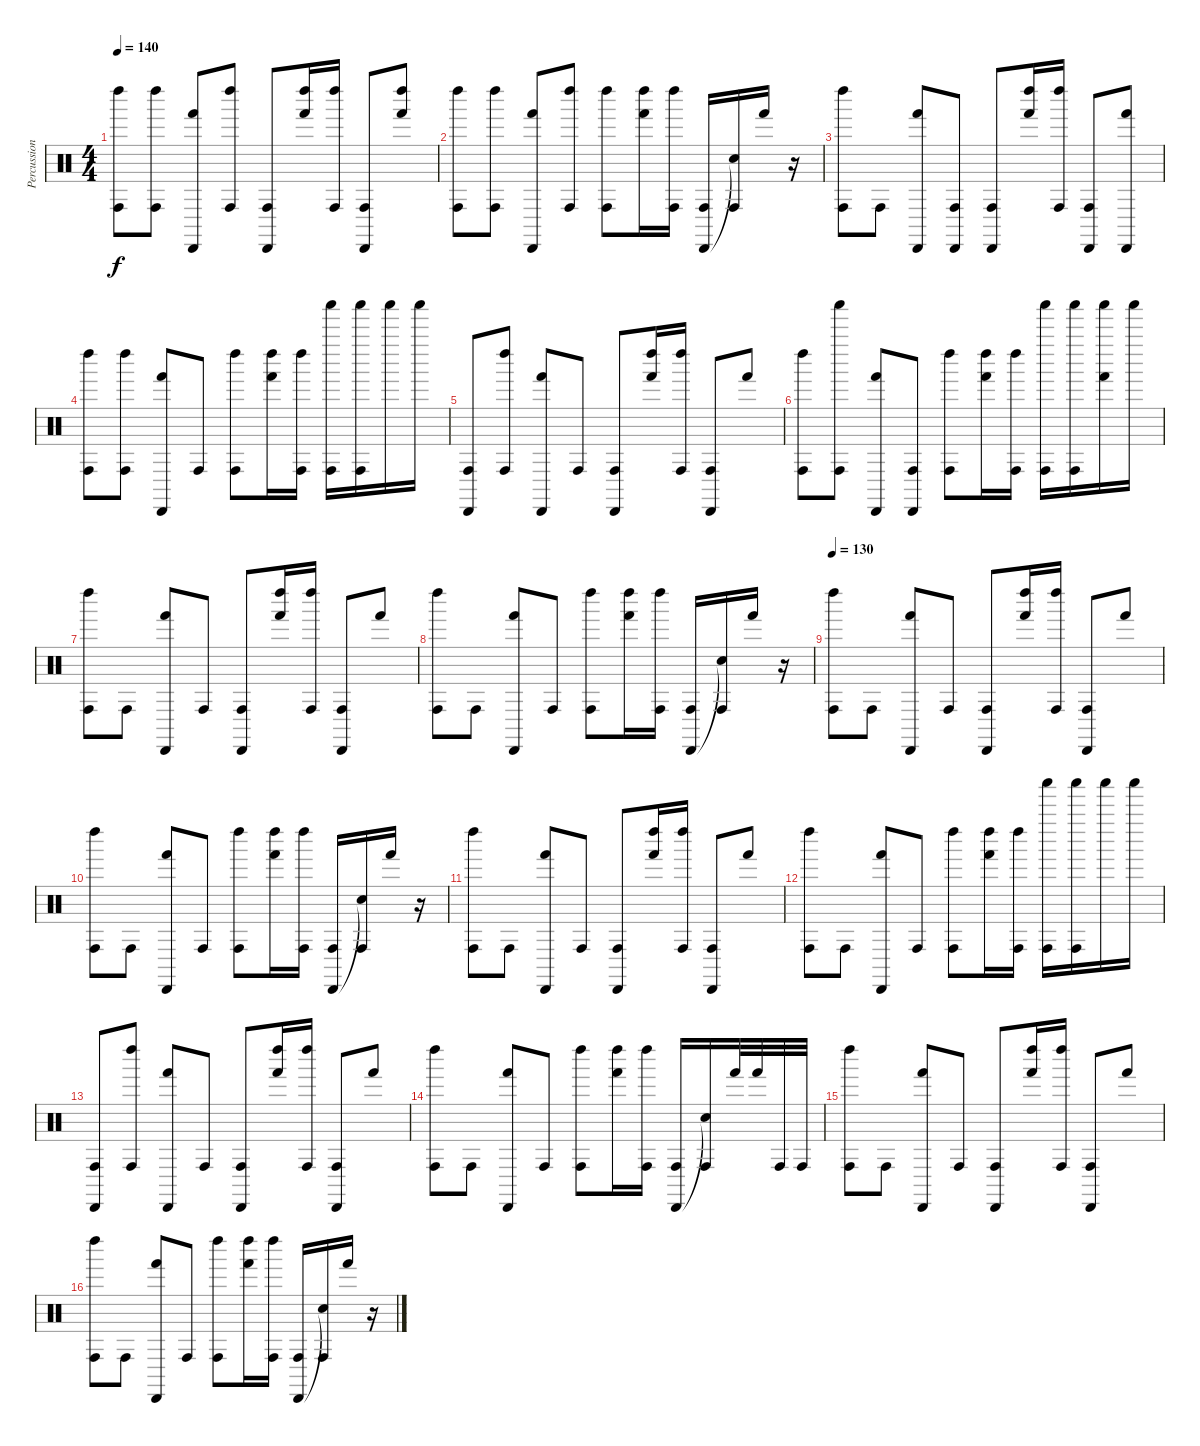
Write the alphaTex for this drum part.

\track ("Percussions" "Percussion") {instrument percussion}
\staff {score}
\articulation defaults
\ts (4 4)
\tempo 140
\clef neutral
\ks c
("Left Maraca (hit)" "Conga high (hit)").8{dy f} ("Left Maraca (hit)" "Conga high (hit)").8 ("Cabasa (hit)" "Hand (hit)").8 ("Left Maraca (hit)" "Conga high (hit)").8 ("Cabasa (hit)" "Conga high (hit)").8 ("Left Maraca (hit)" "Hand (hit)").16 ("Left Maraca (hit)" "Conga high (hit)").16 ("Cabasa (hit)" "Conga high (hit)").8 ("Left Maraca (hit)" "Hand (hit)").8 |
("Left Maraca (hit)" "Conga high (hit)").8 ("Left Maraca (hit)" "Conga high (hit)").8 ("Cabasa (hit)" "Hand (hit)").8 ("Left Maraca (hit)" "Conga high (hit)").8 ("Left Maraca (hit)" "Conga high (hit)").8 ("Left Maraca (hit)" "Hand (hit)").16 ("Left Maraca (hit)" "Conga high (hit)").16 ("Cabasa (hit)" "Conga high (hit)").16 ("Snare (hit)"{t} "Conga high (hit)").16 "Hand (hit)".16 r.16 |
("Left Maraca (hit)" "Conga high (hit)").8 "Conga high (hit)".8 ("Cabasa (hit)" "Hand (hit)").8 ("Cabasa (hit)" "Conga high (hit)").8 ("Cabasa (hit)" "Conga high (hit)").8 ("Left Maraca (hit)" "Hand (hit)").16 ("Left Maraca (hit)" "Conga high (hit)").16 ("Cabasa (hit)" "Conga high (hit)").8 ("Cabasa (hit)" "Hand (hit)").8 |
("Left Maraca (hit)" "Conga high (hit)").8 ("Left Maraca (hit)" "Conga high (hit)").8 ("Cabasa (hit)" "Hand (hit)").8 "Conga high (hit)".8 ("Left Maraca (hit)" "Conga high (hit)").8 ("Left Maraca (hit)" "Hand (hit)").16 ("Left Maraca (hit)" "Conga high (hit)").16 ("Shaker (hit)" "Conga high (hit)").16 ("Shaker (hit)" "Conga high (hit)").16 "Shaker (hit)".16 "Shaker (hit)".16 |
("Cabasa (hit)" "Conga high (hit)").8 ("Left Maraca (hit)" "Conga high (hit)").8 ("Cabasa (hit)" "Hand (hit)").8 "Conga high (hit)".8 ("Cabasa (hit)" "Conga high (hit)").8 ("Left Maraca (hit)" "Hand (hit)").16 ("Left Maraca (hit)" "Conga high (hit)").16 ("Cabasa (hit)" "Conga high (hit)").8 "Hand (hit)".8 |
("Left Maraca (hit)" "Conga high (hit)").8 ("Shaker (hit)" "Conga high (hit)").8 ("Cabasa (hit)" "Hand (hit)").8 ("Cabasa (hit)" "Conga high (hit)").8 ("Left Maraca (hit)" "Conga high (hit)").8 ("Left Maraca (hit)" "Hand (hit)").16 ("Left Maraca (hit)" "Conga high (hit)").16 ("Shaker (hit)" "Conga high (hit)").16 ("Shaker (hit)" "Conga high (hit)").16 ("Shaker (hit)" "Hand (hit)").16 "Shaker (hit)".16 |
("Left Maraca (hit)" "Conga high (hit)").8 "Conga high (hit)".8 ("Cabasa (hit)" "Hand (hit)").8 "Conga high (hit)".8 ("Cabasa (hit)" "Conga high (hit)").8 ("Left Maraca (hit)" "Hand (hit)").16 ("Left Maraca (hit)" "Conga high (hit)").16 ("Cabasa (hit)" "Conga high (hit)").8 "Hand (hit)".8 |
("Left Maraca (hit)" "Conga high (hit)").8 "Conga high (hit)".8 ("Cabasa (hit)" "Hand (hit)").8 "Conga high (hit)".8 ("Left Maraca (hit)" "Conga high (hit)").8 ("Left Maraca (hit)" "Hand (hit)").16 ("Left Maraca (hit)" "Conga high (hit)").16 ("Cabasa (hit)" "Conga high (hit)").16 ("Snare (hit)"{t} "Conga high (hit)").16 "Hand (hit)".16 r.16 |
\tempo 130
("Left Maraca (hit)" "Conga high (hit)").8 "Conga high (hit)".8 ("Cabasa (hit)" "Hand (hit)").8 "Conga high (hit)".8 ("Cabasa (hit)" "Conga high (hit)").8 ("Left Maraca (hit)" "Hand (hit)").16 ("Left Maraca (hit)" "Conga high (hit)").16 ("Cabasa (hit)" "Conga high (hit)").8 "Hand (hit)".8 |
("Left Maraca (hit)" "Conga high (hit)").8 "Conga high (hit)".8 ("Cabasa (hit)" "Hand (hit)").8 "Conga high (hit)".8 ("Left Maraca (hit)" "Conga high (hit)").8 ("Left Maraca (hit)" "Hand (hit)").16 ("Left Maraca (hit)" "Conga high (hit)").16 ("Cabasa (hit)" "Conga high (hit)").16 ("Snare (hit)"{t} "Conga high (hit)").16 "Hand (hit)".16 r.16 |
("Left Maraca (hit)" "Conga high (hit)").8 "Conga high (hit)".8 ("Cabasa (hit)" "Hand (hit)").8 "Conga high (hit)".8 ("Cabasa (hit)" "Conga high (hit)").8 ("Left Maraca (hit)" "Hand (hit)").16 ("Left Maraca (hit)" "Conga high (hit)").16 ("Cabasa (hit)" "Conga high (hit)").8 "Hand (hit)".8 |
("Left Maraca (hit)" "Conga high (hit)").8 "Conga high (hit)".8 ("Cabasa (hit)" "Hand (hit)").8 "Conga high (hit)".8 ("Left Maraca (hit)" "Conga high (hit)").8 ("Left Maraca (hit)" "Hand (hit)").16 ("Left Maraca (hit)" "Conga high (hit)").16 ("Shaker (hit)" "Conga high (hit)").16 ("Shaker (hit)" "Conga high (hit)").16 "Shaker (hit)".16 "Shaker (hit)".16 |
("Cabasa (hit)" "Conga high (hit)").8 ("Left Maraca (hit)" "Conga high (hit)").8 ("Cabasa (hit)" "Hand (hit)").8 "Conga high (hit)".8 ("Cabasa (hit)" "Conga high (hit)").8 ("Left Maraca (hit)" "Hand (hit)").16 ("Left Maraca (hit)" "Conga high (hit)").16 ("Cabasa (hit)" "Conga high (hit)").8 "Hand (hit)".8 |
("Left Maraca (hit)" "Conga high (hit)").8 "Conga high (hit)".8 ("Cabasa (hit)" "Hand (hit)").8 "Conga high (hit)".8 ("Left Maraca (hit)" "Conga high (hit)").8 ("Left Maraca (hit)" "Hand (hit)").16 ("Left Maraca (hit)" "Conga high (hit)").16 ("Cabasa (hit)" "Conga high (hit)").16 ("Snare (hit)"{t} "Conga high (hit)").16 "Hand (hit)".32 "Hand (hit)".32 "Conga high (hit)".32 "Conga high (hit)".32 |
("Left Maraca (hit)" "Conga high (hit)").8 "Conga high (hit)".8 ("Cabasa (hit)" "Hand (hit)").8 "Conga high (hit)".8 ("Cabasa (hit)" "Conga high (hit)").8 ("Left Maraca (hit)" "Hand (hit)").16 ("Left Maraca (hit)" "Conga high (hit)").16 ("Cabasa (hit)" "Conga high (hit)").8 "Hand (hit)".8 |
("Left Maraca (hit)" "Conga high (hit)").8 "Conga high (hit)".8 ("Cabasa (hit)" "Hand (hit)").8 "Conga high (hit)".8 ("Left Maraca (hit)" "Conga high (hit)").8 ("Left Maraca (hit)" "Hand (hit)").16 ("Left Maraca (hit)" "Conga high (hit)").16 ("Cabasa (hit)" "Conga high (hit)").16 ("Snare (hit)"{t} "Conga high (hit)").16 "Hand (hit)".16 r.16
